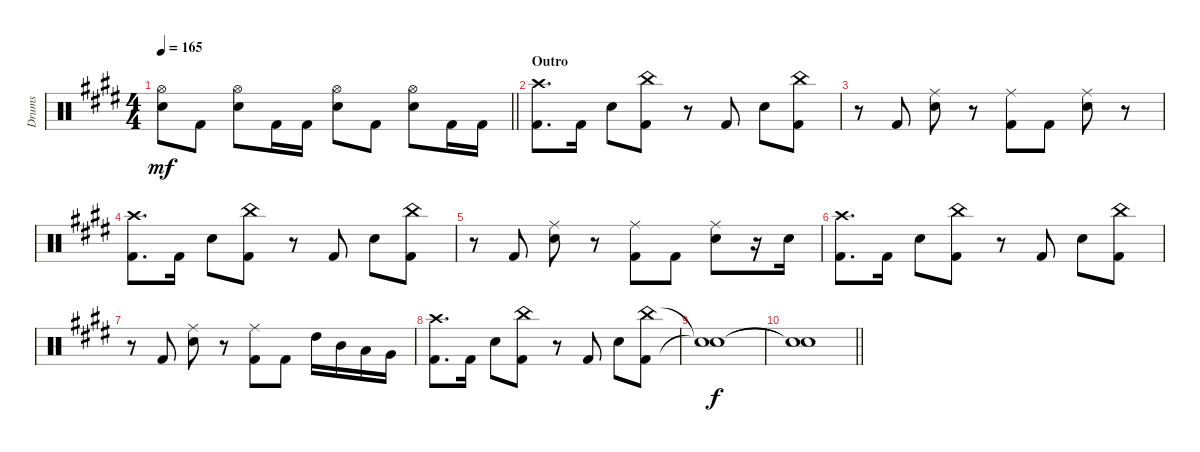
\track ("Drums" "Drums") {instrument percussion}
\staff {score}
\articulation defaults
\ts (4 4)
\tempo 165
\clef neutral
\barLineRight lightlight
\ks e
("Hi-Hat (open)" "Electric Snare (hit)").8{dy mf} "Kick (hit) 2".8 ("Hi-Hat (open)" "Electric Snare (hit)").8 "Kick (hit) 2".16 "Kick (hit) 2".16 ("Hi-Hat (open)" "Electric Snare (hit)").8 "Kick (hit) 2".8 ("Hi-Hat (open)" "Electric Snare (hit)").8 "Kick (hit) 2".16 "Kick (hit) 2".16 |
\section ("" "Outro")
("Crash high (hit)" "Kick (hit) 2").8{d} "Kick (hit) 2".16 "Electric Snare (hit)".8 ("China (hit)" "Kick (hit) 2").8 r.8 "Kick (hit) 2".8 "Electric Snare (hit)".8 ("China (hit)" "Kick (hit) 2").8 |
r.8 "Kick (hit) 2".8 ("Ride (middle)" "Electric Snare (hit)").8 r.8 ("Ride (middle)" "Kick (hit) 2").8 "Kick (hit) 2".8 ("Ride (middle)" "Electric Snare (hit)").8 r.8 |
("Crash high (hit)" "Kick (hit) 2").8{d} "Kick (hit) 2".16 "Electric Snare (hit)".8 ("China (hit)" "Kick (hit) 2").8 r.8 "Kick (hit) 2".8 "Electric Snare (hit)".8 ("China (hit)" "Kick (hit) 2").8 |
r.8 "Kick (hit) 2".8 ("Ride (middle)" "Electric Snare (hit)").8 r.8 ("Ride (middle)" "Kick (hit) 2").8 "Kick (hit) 2".8 ("Ride (middle)" "Electric Snare (hit)").8 r.16 "Electric Snare (hit)".16 |
("Crash high (hit)" "Kick (hit) 2").8{d} "Kick (hit) 2".16 "Electric Snare (hit)".8 ("China (hit)" "Kick (hit) 2").8 r.8 "Kick (hit) 2".8 "Electric Snare (hit)".8 ("China (hit)" "Kick (hit) 2").8 |
r.8 "Kick (hit) 2".8 ("Ride (middle)" "Electric Snare (hit)").8 r.8 ("Ride (middle)" "Kick (hit) 2").8 "Kick (hit) 2".8 "High Tom (hit)".16 "Mid Tom (hit)".16 "Low Tom (hit)".16 "Very Low Tom (hit)".16 |
("Crash high (hit)" "Kick (hit) 2").8{d} "Kick (hit) 2".16 "Electric Snare (hit)".8 ("China (hit)" "Kick (hit) 2").8 r.8 "Kick (hit) 2".8 "Electric Snare (hit)".8 ("China (hit)" "Kick (hit) 2").8 |
("Snare (hit)"{t} "Snare (hit)"{t}).1{dy f} |
\barLineRight lightlight
("Snare (hit)"{t} "Snare (hit)"{t}).1
